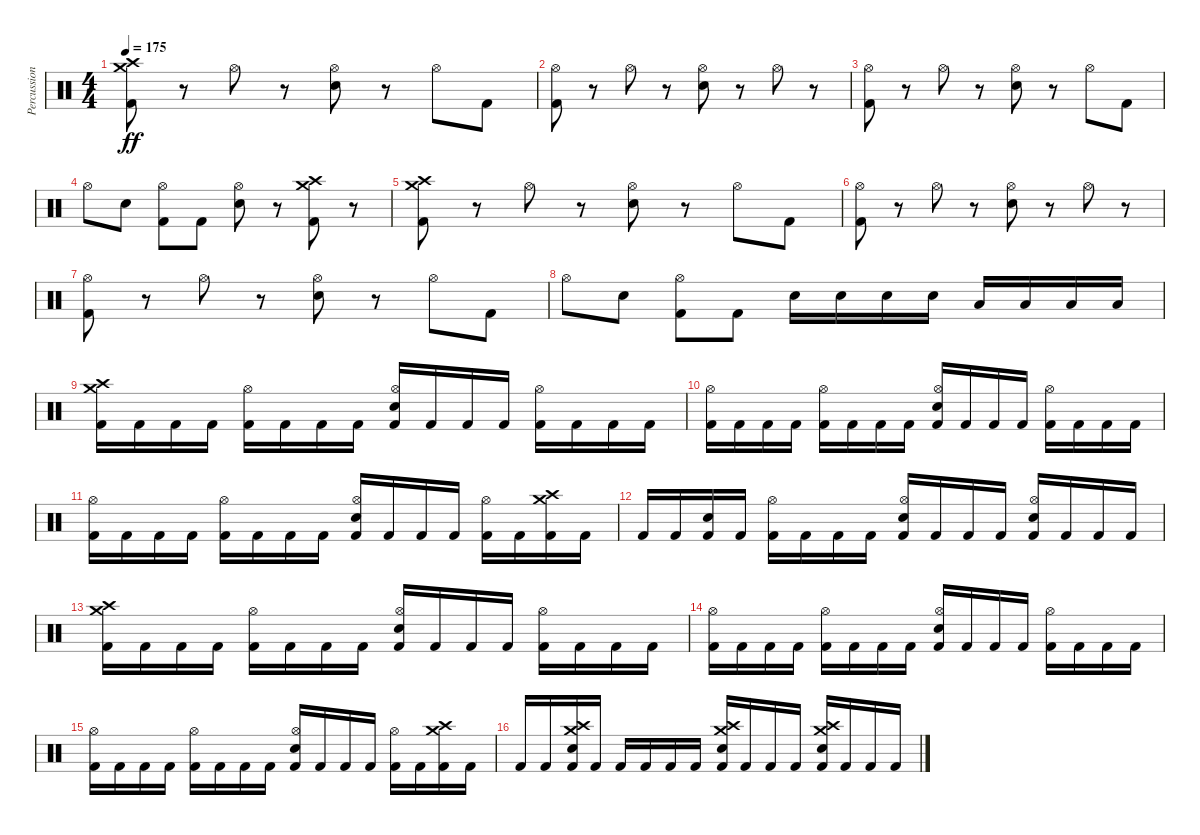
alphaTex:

\track ("Percussion" "Percussion") {instrument percussion}
\staff {score}
\articulation defaults
\ts (4 4)
\tempo 175
\clef neutral
\ks c
("Kick (hit) 2" "Crash medium (hit)" "Crash high (hit)").8{dy ff} r.8 "Hi-Hat (open)".8 r.8 ("Electric Snare (hit)" "Hi-Hat (open)").8 r.8 "Hi-Hat (open)".8 "Kick (hit) 2".8 |
("Kick (hit) 2" "Hi-Hat (open)").8 r.8 "Hi-Hat (open)".8 r.8 ("Electric Snare (hit)" "Hi-Hat (open)").8 r.8 "Hi-Hat (open)".8 r.8 |
("Kick (hit) 2" "Hi-Hat (open)").8 r.8 "Hi-Hat (open)".8 r.8 ("Electric Snare (hit)" "Hi-Hat (open)").8 r.8 "Hi-Hat (open)".8 "Kick (hit) 2".8 |
"Hi-Hat (open)".8 "Electric Snare (hit)".8 ("Kick (hit) 2" "Hi-Hat (open)").8 "Kick (hit) 2".8 ("Electric Snare (hit)" "Hi-Hat (open)").8 r.8 ("Kick (hit) 2" "Crash medium (hit)" "Crash high (hit)").8 r.8 |
("Kick (hit) 2" "Crash medium (hit)" "Crash high (hit)").8 r.8 "Hi-Hat (open)".8 r.8 ("Electric Snare (hit)" "Hi-Hat (open)").8 r.8 "Hi-Hat (open)".8 "Kick (hit) 2".8 |
("Kick (hit) 2" "Hi-Hat (open)").8 r.8 "Hi-Hat (open)".8 r.8 ("Electric Snare (hit)" "Hi-Hat (open)").8 r.8 "Hi-Hat (open)".8 r.8 |
("Kick (hit) 2" "Hi-Hat (open)").8 r.8 "Hi-Hat (open)".8 r.8 ("Electric Snare (hit)" "Hi-Hat (open)").8 r.8 "Hi-Hat (open)".8 "Kick (hit) 2".8 |
"Hi-Hat (open)".8 "Electric Snare (hit)".8 ("Kick (hit) 2" "Hi-Hat (open)").8 "Kick (hit) 2".8 "Electric Snare (hit)".16 "Electric Snare (hit)".16 "Electric Snare (hit)".16 "Electric Snare (hit)".16 "Low Floor Tom (hit)".16 "Low Floor Tom (hit)".16 "Low Floor Tom (hit)".16 "Low Floor Tom (hit)".16 |
("Kick (hit) 2" "Crash medium (hit)" "Crash high (hit)").16 "Kick (hit) 2".16 "Kick (hit) 2".16 "Kick (hit) 2".16 ("Kick (hit) 2" "Hi-Hat (open)").16 "Kick (hit) 2".16 "Kick (hit) 2".16 "Kick (hit) 2".16 ("Kick (hit) 2" "Electric Snare (hit)" "Hi-Hat (open)").16 "Kick (hit) 2".16 "Kick (hit) 2".16 "Kick (hit) 2".16 ("Kick (hit) 2" "Hi-Hat (open)").16 "Kick (hit) 2".16 "Kick (hit) 2".16 "Kick (hit) 2".16 |
("Kick (hit) 2" "Hi-Hat (open)").16 "Kick (hit) 2".16 "Kick (hit) 2".16 "Kick (hit) 2".16 ("Kick (hit) 2" "Hi-Hat (open)").16 "Kick (hit) 2".16 "Kick (hit) 2".16 "Kick (hit) 2".16 ("Kick (hit) 2" "Electric Snare (hit)" "Hi-Hat (open)").16 "Kick (hit) 2".16 "Kick (hit) 2".16 "Kick (hit) 2".16 ("Kick (hit) 2" "Hi-Hat (open)").16 "Kick (hit) 2".16 "Kick (hit) 2".16 "Kick (hit) 2".16 |
("Kick (hit) 2" "Hi-Hat (open)").16 "Kick (hit) 2".16 "Kick (hit) 2".16 "Kick (hit) 2".16 ("Kick (hit) 2" "Hi-Hat (open)").16 "Kick (hit) 2".16 "Kick (hit) 2".16 "Kick (hit) 2".16 ("Kick (hit) 2" "Electric Snare (hit)" "Hi-Hat (open)").16 "Kick (hit) 2".16 "Kick (hit) 2".16 "Kick (hit) 2".16 ("Kick (hit) 2" "Hi-Hat (open)").16 "Kick (hit) 2".16 ("Kick (hit) 2" "Crash medium (hit)" "Crash high (hit)").16 "Kick (hit) 2".16 |
"Kick (hit) 2".16 "Kick (hit) 2".16 ("Kick (hit) 2" "Electric Snare (hit)").16 "Kick (hit) 2".16 ("Kick (hit) 2" "Hi-Hat (open)").16 "Kick (hit) 2".16 "Kick (hit) 2".16 "Kick (hit) 2".16 ("Kick (hit) 2" "Electric Snare (hit)" "Hi-Hat (open)").16 "Kick (hit) 2".16 "Kick (hit) 2".16 "Kick (hit) 2".16 ("Kick (hit) 2" "Electric Snare (hit)" "Hi-Hat (open)").16 "Kick (hit) 2".16 "Kick (hit) 2".16 "Kick (hit) 2".16 |
("Kick (hit) 2" "Crash medium (hit)" "Crash high (hit)").16 "Kick (hit) 2".16 "Kick (hit) 2".16 "Kick (hit) 2".16 ("Kick (hit) 2" "Hi-Hat (open)").16 "Kick (hit) 2".16 "Kick (hit) 2".16 "Kick (hit) 2".16 ("Kick (hit) 2" "Electric Snare (hit)" "Hi-Hat (open)").16 "Kick (hit) 2".16 "Kick (hit) 2".16 "Kick (hit) 2".16 ("Kick (hit) 2" "Hi-Hat (open)").16 "Kick (hit) 2".16 "Kick (hit) 2".16 "Kick (hit) 2".16 |
("Kick (hit) 2" "Hi-Hat (open)").16 "Kick (hit) 2".16 "Kick (hit) 2".16 "Kick (hit) 2".16 ("Kick (hit) 2" "Hi-Hat (open)").16 "Kick (hit) 2".16 "Kick (hit) 2".16 "Kick (hit) 2".16 ("Kick (hit) 2" "Electric Snare (hit)" "Hi-Hat (open)").16 "Kick (hit) 2".16 "Kick (hit) 2".16 "Kick (hit) 2".16 ("Kick (hit) 2" "Hi-Hat (open)").16 "Kick (hit) 2".16 "Kick (hit) 2".16 "Kick (hit) 2".16 |
("Kick (hit) 2" "Hi-Hat (open)").16 "Kick (hit) 2".16 "Kick (hit) 2".16 "Kick (hit) 2".16 ("Kick (hit) 2" "Hi-Hat (open)").16 "Kick (hit) 2".16 "Kick (hit) 2".16 "Kick (hit) 2".16 ("Kick (hit) 2" "Electric Snare (hit)" "Hi-Hat (open)").16 "Kick (hit) 2".16 "Kick (hit) 2".16 "Kick (hit) 2".16 ("Kick (hit) 2" "Hi-Hat (open)").16 "Kick (hit) 2".16 ("Kick (hit) 2" "Crash medium (hit)" "Crash high (hit)").16 "Kick (hit) 2".16 |
"Kick (hit) 2".16 "Kick (hit) 2".16 ("Kick (hit) 2" "Electric Snare (hit)" "Crash medium (hit)" "Crash high (hit)").16 "Kick (hit) 2".16 "Kick (hit) 2".16 "Kick (hit) 2".16 "Kick (hit) 2".16 "Kick (hit) 2".16 ("Kick (hit) 2" "Electric Snare (hit)" "Crash medium (hit)" "Crash high (hit)").16 "Kick (hit) 2".16 "Kick (hit) 2".16 "Kick (hit) 2".16 ("Kick (hit) 2" "Electric Snare (hit)" "Crash medium (hit)" "Crash high (hit)").16 "Kick (hit) 2".16 "Kick (hit) 2".16 "Kick (hit) 2".16
